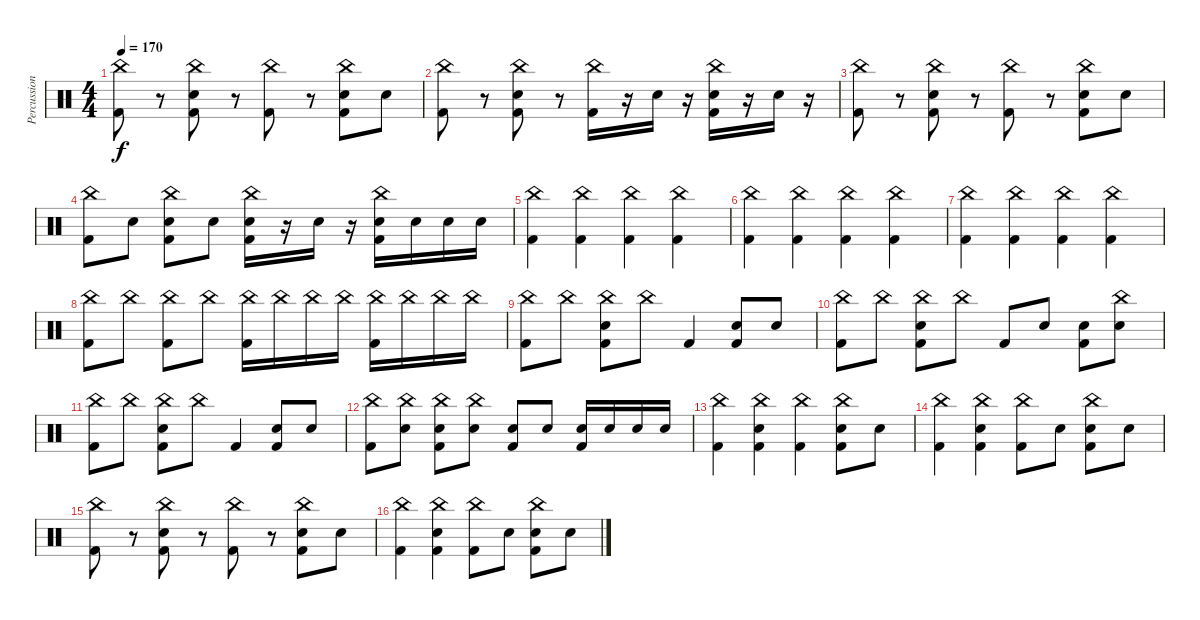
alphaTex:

\track ("Percussion" "Percussion") {instrument percussion}
\staff {score}
\articulation defaults
\ts (4 4)
\tempo 170
\clef neutral
\ks c
("China (hit)" "Kick (hit) 2").8{dy f} r.8 ("China (hit)" "Electric Snare (hit)" "Kick (hit) 2").8 r.8 ("China (hit)" "Kick (hit) 2").8 r.8 ("China (hit)" "Electric Snare (hit)" "Kick (hit) 2").8 "Electric Snare (hit)".8 |
("China (hit)" "Kick (hit) 2").8 r.8 ("China (hit)" "Electric Snare (hit)" "Kick (hit) 2").8 r.8 ("China (hit)" "Kick (hit) 2").16 r.16 "Electric Snare (hit)".16 r.16 ("China (hit)" "Electric Snare (hit)" "Kick (hit) 2").16 r.16 "Electric Snare (hit)".16 r.16 |
("China (hit)" "Kick (hit) 2").8 r.8 ("China (hit)" "Electric Snare (hit)" "Kick (hit) 2").8 r.8 ("China (hit)" "Kick (hit) 2").8 r.8 ("China (hit)" "Electric Snare (hit)" "Kick (hit) 2").8 "Electric Snare (hit)".8 |
("China (hit)" "Kick (hit) 2").8 "Electric Snare (hit)".8 ("China (hit)" "Electric Snare (hit)" "Kick (hit) 2").8 "Electric Snare (hit)".8 ("China (hit)" "Electric Snare (hit)" "Kick (hit) 2").16 r.16 "Electric Snare (hit)".16 r.16 ("China (hit)" "Electric Snare (hit)" "Kick (hit) 2").16 "Electric Snare (hit)".16 "Electric Snare (hit)".16 "Electric Snare (hit)".16 |
("China (hit)" "Kick (hit) 2").4 ("China (hit)" "Kick (hit) 2").4 ("China (hit)" "Kick (hit) 2").4 ("China (hit)" "Kick (hit) 2").4 |
("China (hit)" "Kick (hit) 2").4 ("China (hit)" "Kick (hit) 2").4 ("China (hit)" "Kick (hit) 2").4 ("China (hit)" "Kick (hit) 2").4 |
("China (hit)" "Kick (hit) 2").4 ("China (hit)" "Kick (hit) 2").4 ("China (hit)" "Kick (hit) 2").4 ("China (hit)" "Kick (hit) 2").4 |
("China (hit)" "Kick (hit) 2").8 "China (hit)".8 ("China (hit)" "Kick (hit) 2").8 "China (hit)".8 ("China (hit)" "Kick (hit) 2").16 "China (hit)".16 "China (hit)".16 "China (hit)".16 ("China (hit)" "Kick (hit) 2").16 "China (hit)".16 "China (hit)".16 "China (hit)".16 |
("China (hit)" "Kick (hit) 2").8 "China (hit)".8 ("China (hit)" "Electric Snare (hit)" "Kick (hit) 2").8 "China (hit)".8 "Kick (hit) 2".4 ("Electric Snare (hit)" "Kick (hit) 2").8 "Electric Snare (hit)".8 |
("China (hit)" "Kick (hit) 2").8 "China (hit)".8 ("China (hit)" "Electric Snare (hit)" "Kick (hit) 2").8 "China (hit)".8 "Kick (hit) 2".8 "Electric Snare (hit)".8 ("Electric Snare (hit)" "Kick (hit) 2").8 ("China (hit)" "Electric Snare (hit)").8 |
("China (hit)" "Kick (hit) 2").8 "China (hit)".8 ("China (hit)" "Electric Snare (hit)" "Kick (hit) 2").8 "China (hit)".8 "Kick (hit) 2".4 ("Electric Snare (hit)" "Kick (hit) 2").8 "Electric Snare (hit)".8 |
("China (hit)" "Kick (hit) 2").8 ("China (hit)" "Electric Snare (hit)").8 ("China (hit)" "Electric Snare (hit)" "Kick (hit) 2").8 ("China (hit)" "Electric Snare (hit)").8 ("Electric Snare (hit)" "Kick (hit) 2").8 "Electric Snare (hit)".8 ("Electric Snare (hit)" "Kick (hit) 2").16 "Electric Snare (hit)".16 "Electric Snare (hit)".16 "Electric Snare (hit)".16 |
("China (hit)" "Kick (hit) 2").4 ("China (hit)" "Electric Snare (hit)" "Kick (hit) 2").4 ("China (hit)" "Kick (hit) 2").4 ("China (hit)" "Electric Snare (hit)" "Kick (hit) 2").8 "Electric Snare (hit)".8 |
("China (hit)" "Kick (hit) 2").4 ("China (hit)" "Electric Snare (hit)" "Kick (hit) 2").4 ("China (hit)" "Kick (hit) 2").8 "Electric Snare (hit)".8 ("China (hit)" "Electric Snare (hit)" "Kick (hit) 2").8 "Electric Snare (hit)".8 |
("China (hit)" "Kick (hit) 2").8 r.8 ("China (hit)" "Electric Snare (hit)" "Kick (hit) 2").8 r.8 ("China (hit)" "Kick (hit) 2").8 r.8 ("China (hit)" "Electric Snare (hit)" "Kick (hit) 2").8 "Electric Snare (hit)".8 |
("China (hit)" "Kick (hit) 2").4 ("China (hit)" "Electric Snare (hit)" "Kick (hit) 2").4 ("China (hit)" "Kick (hit) 2").8 "Electric Snare (hit)".8 ("China (hit)" "Electric Snare (hit)" "Kick (hit) 2").8 "Electric Snare (hit)".8
